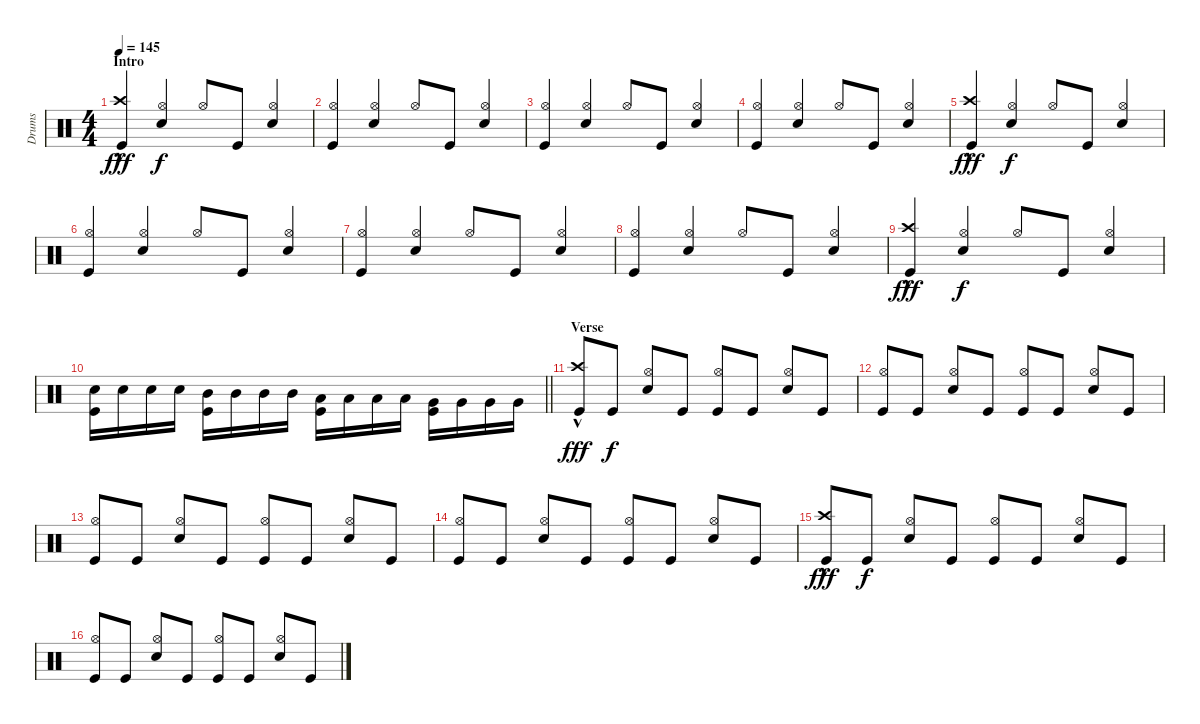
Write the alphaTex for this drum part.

\track ("Drums" "Drums") {instrument percussion}
\staff {score}
\articulation defaults
\ts (4 4)
\section ("" "Intro")
\tempo 145
\clef neutral
\ks c
("Crash high (hit)"{hac} "Kick (hit)").4{dy fff beam Up} ("Hi-Hat (open)" "Snare (hit) 2").4{dy f beam Up} "Hi-Hat (open)".8{beam Up} "Kick (hit)".8{beam Up} ("Hi-Hat (open)" "Snare (hit) 2").4{beam Up} |
("Hi-Hat (open)" "Kick (hit)").4{beam Up} ("Hi-Hat (open)" "Snare (hit) 2").4{beam Up} "Hi-Hat (open)".8{beam Up} "Kick (hit)".8{beam Up} ("Hi-Hat (open)" "Snare (hit) 2").4{beam Up} |
("Hi-Hat (open)" "Kick (hit)").4{beam Up} ("Hi-Hat (open)" "Snare (hit) 2").4{beam Up} "Hi-Hat (open)".8{beam Up} "Kick (hit)".8{beam Up} ("Hi-Hat (open)" "Snare (hit) 2").4{beam Up} |
("Hi-Hat (open)" "Kick (hit)").4{beam Up} ("Hi-Hat (open)" "Snare (hit) 2").4{beam Up} "Hi-Hat (open)".8{beam Up} "Kick (hit)".8{beam Up} ("Hi-Hat (open)" "Snare (hit) 2").4{beam Up} |
("Crash high (hit)"{hac} "Kick (hit)").4{dy fff beam Up} ("Hi-Hat (open)" "Snare (hit) 2").4{dy f beam Up} "Hi-Hat (open)".8{beam Up} "Kick (hit)".8{beam Up} ("Hi-Hat (open)" "Snare (hit) 2").4{beam Up} |
("Hi-Hat (open)" "Kick (hit)").4{beam Up} ("Hi-Hat (open)" "Snare (hit) 2").4{beam Up} "Hi-Hat (open)".8{beam Up} "Kick (hit)".8{beam Up} ("Hi-Hat (open)" "Snare (hit) 2").4{beam Up} |
("Hi-Hat (open)" "Kick (hit)").4{beam Up} ("Hi-Hat (open)" "Snare (hit) 2").4{beam Up} "Hi-Hat (open)".8{beam Up} "Kick (hit)".8{beam Up} ("Hi-Hat (open)" "Snare (hit) 2").4{beam Up} |
("Hi-Hat (open)" "Kick (hit)").4{beam Up} ("Hi-Hat (open)" "Snare (hit) 2").4{beam Up} "Hi-Hat (open)".8{beam Up} "Kick (hit)".8{beam Up} ("Hi-Hat (open)" "Snare (hit) 2").4{beam Up} |
("Crash high (hit)"{hac} "Kick (hit)").4{dy fff beam Up} ("Hi-Hat (open)" "Snare (hit) 2").4{dy f beam Up} "Hi-Hat (open)".8{beam Up} "Kick (hit)".8{beam Up} ("Hi-Hat (open)" "Snare (hit) 2").4{beam Up} |
\barLineRight lightlight
("Snare (hit) 2" "Kick (hit)").16{beam Down} "Snare (hit) 2".16{beam Down} "Snare (hit) 2".16{beam Down} "Snare (hit) 2".16{beam Down} ("Mid Tom (hit)" "Kick (hit)").16{beam Down} "Mid Tom (hit)".16{beam Down} "Mid Tom (hit)".16{beam Down} "Mid Tom (hit)".16{beam Down} ("Low Tom (hit)" "Kick (hit)").16{beam Down} "Low Tom (hit)".16{beam Down} "Low Tom (hit)".16{beam Down} "Low Tom (hit)".16{beam Down} ("Very Low Tom (hit)" "Kick (hit)").16{beam Down} "Very Low Tom (hit)".16{beam Down} "Very Low Tom (hit)".16{beam Down} "Very Low Tom (hit)".16{beam Down} |
\section ("" "Verse")
("Crash high (hit)"{hac} "Kick (hit)").8{dy fff beam Up} "Kick (hit)".8{dy f beam Up} ("Hi-Hat (open)" "Snare (hit) 2").8{beam Up} "Kick (hit)".8{beam Up} ("Hi-Hat (open)" "Kick (hit)").8{beam Up} "Kick (hit)".8{beam Up} ("Hi-Hat (open)" "Snare (hit) 2").8{beam Up} "Kick (hit)".8{beam Up} |
("Hi-Hat (open)" "Kick (hit)").8{beam Up} "Kick (hit)".8{beam Up} ("Hi-Hat (open)" "Snare (hit) 2").8{beam Up} "Kick (hit)".8{beam Up} ("Hi-Hat (open)" "Kick (hit)").8{beam Up} "Kick (hit)".8{beam Up} ("Hi-Hat (open)" "Snare (hit) 2").8{beam Up} "Kick (hit)".8{beam Up} |
("Hi-Hat (open)" "Kick (hit)").8{beam Up} "Kick (hit)".8{beam Up} ("Hi-Hat (open)" "Snare (hit) 2").8{beam Up} "Kick (hit)".8{beam Up} ("Hi-Hat (open)" "Kick (hit)").8{beam Up} "Kick (hit)".8{beam Up} ("Hi-Hat (open)" "Snare (hit) 2").8{beam Up} "Kick (hit)".8{beam Up} |
("Hi-Hat (open)" "Kick (hit)").8{beam Up} "Kick (hit)".8{beam Up} ("Hi-Hat (open)" "Snare (hit) 2").8{beam Up} "Kick (hit)".8{beam Up} ("Hi-Hat (open)" "Kick (hit)").8{beam Up} "Kick (hit)".8{beam Up} ("Hi-Hat (open)" "Snare (hit) 2").8{beam Up} "Kick (hit)".8{beam Up} |
("Crash high (hit)"{hac} "Kick (hit)").8{dy fff beam Up} "Kick (hit)".8{dy f beam Up} ("Hi-Hat (open)" "Snare (hit) 2").8{beam Up} "Kick (hit)".8{beam Up} ("Hi-Hat (open)" "Kick (hit)").8{beam Up} "Kick (hit)".8{beam Up} ("Hi-Hat (open)" "Snare (hit) 2").8{beam Up} "Kick (hit)".8{beam Up} |
("Hi-Hat (open)" "Kick (hit)").8{beam Up} "Kick (hit)".8{beam Up} ("Hi-Hat (open)" "Snare (hit) 2").8{beam Up} "Kick (hit)".8{beam Up} ("Hi-Hat (open)" "Kick (hit)").8{beam Up} "Kick (hit)".8{beam Up} ("Hi-Hat (open)" "Snare (hit) 2").8{beam Up} "Kick (hit)".8{beam Up}
